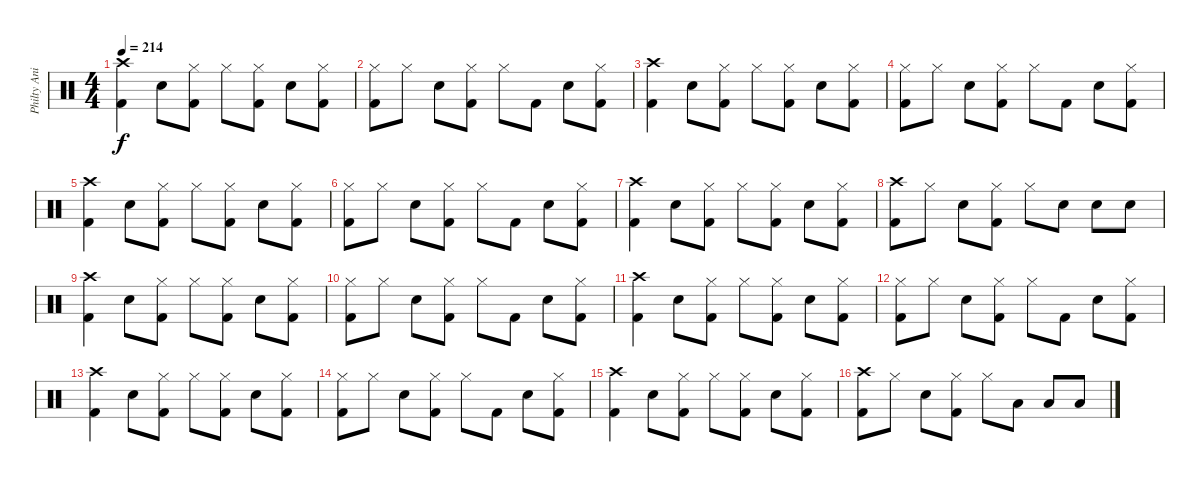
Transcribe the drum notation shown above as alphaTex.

\track ("Philty Animal" "Philty Ani") {instrument percussion}
\staff {score}
\articulation defaults
\ts (4 4)
\tempo 214
\clef neutral
\ks c
("Kick (hit) 2" "Crash high (hit)").4{dy f} "Snare (hit) 2".8 ("Kick (hit) 2" "Hi-Hat (closed)").8 "Hi-Hat (closed)".8 ("Kick (hit) 2" "Hi-Hat (closed)").8 "Snare (hit) 2".8 ("Kick (hit) 2" "Hi-Hat (closed)").8 |
("Kick (hit) 2" "Hi-Hat (closed)").8 "Hi-Hat (closed)".8 "Snare (hit) 2".8 ("Hi-Hat (closed)" "Kick (hit) 2").8 "Hi-Hat (closed)".8 "Kick (hit) 2".8 "Snare (hit) 2".8 ("Kick (hit) 2" "Hi-Hat (closed)").8 |
("Kick (hit) 2" "Crash high (hit)").4 "Snare (hit) 2".8 ("Kick (hit) 2" "Hi-Hat (closed)").8 "Hi-Hat (closed)".8 ("Kick (hit) 2" "Hi-Hat (closed)").8 "Snare (hit) 2".8 ("Kick (hit) 2" "Hi-Hat (closed)").8 |
("Kick (hit) 2" "Hi-Hat (closed)").8 "Hi-Hat (closed)".8 "Snare (hit) 2".8 ("Hi-Hat (closed)" "Kick (hit) 2").8 "Hi-Hat (closed)".8 "Kick (hit) 2".8 "Snare (hit) 2".8 ("Kick (hit) 2" "Hi-Hat (closed)").8 |
("Kick (hit) 2" "Crash high (hit)").4 "Snare (hit) 2".8 ("Kick (hit) 2" "Hi-Hat (closed)").8 "Hi-Hat (closed)".8 ("Kick (hit) 2" "Hi-Hat (closed)").8 "Snare (hit) 2".8 ("Kick (hit) 2" "Hi-Hat (closed)").8 |
("Kick (hit) 2" "Hi-Hat (closed)").8 "Hi-Hat (closed)".8 "Snare (hit) 2".8 ("Hi-Hat (closed)" "Kick (hit) 2").8 "Hi-Hat (closed)".8 "Kick (hit) 2".8 "Snare (hit) 2".8 ("Kick (hit) 2" "Hi-Hat (closed)").8 |
("Kick (hit) 2" "Crash high (hit)").4 "Snare (hit) 2".8 ("Kick (hit) 2" "Hi-Hat (closed)").8 "Hi-Hat (closed)".8 ("Kick (hit) 2" "Hi-Hat (closed)").8 "Snare (hit) 2".8 ("Kick (hit) 2" "Hi-Hat (closed)").8 |
("Crash high (hit)" "Kick (hit) 2").8 "Hi-Hat (closed)".8 "Snare (hit) 2".8 ("Hi-Hat (closed)" "Kick (hit) 2").8 "Hi-Hat (closed)".8 "Snare (hit) 2".8 "Snare (hit) 2".8 "Snare (hit) 2".8 |
("Kick (hit) 2" "Crash high (hit)").4 "Snare (hit) 2".8 ("Kick (hit) 2" "Hi-Hat (closed)").8 "Hi-Hat (closed)".8 ("Kick (hit) 2" "Hi-Hat (closed)").8 "Snare (hit) 2".8 ("Kick (hit) 2" "Hi-Hat (closed)").8 |
("Kick (hit) 2" "Hi-Hat (closed)").8 "Hi-Hat (closed)".8 "Snare (hit) 2".8 ("Hi-Hat (closed)" "Kick (hit) 2").8 "Hi-Hat (closed)".8 "Kick (hit) 2".8 "Snare (hit) 2".8 ("Kick (hit) 2" "Hi-Hat (closed)").8 |
("Kick (hit) 2" "Crash high (hit)").4 "Snare (hit) 2".8 ("Kick (hit) 2" "Hi-Hat (closed)").8 "Hi-Hat (closed)".8 ("Kick (hit) 2" "Hi-Hat (closed)").8 "Snare (hit) 2".8 ("Kick (hit) 2" "Hi-Hat (closed)").8 |
("Kick (hit) 2" "Hi-Hat (closed)").8 "Hi-Hat (closed)".8 "Snare (hit) 2".8 ("Hi-Hat (closed)" "Kick (hit) 2").8 "Hi-Hat (closed)".8 "Kick (hit) 2".8 "Snare (hit) 2".8 ("Kick (hit) 2" "Hi-Hat (closed)").8 |
("Kick (hit) 2" "Crash high (hit)").4 "Snare (hit) 2".8 ("Kick (hit) 2" "Hi-Hat (closed)").8 "Hi-Hat (closed)".8 ("Kick (hit) 2" "Hi-Hat (closed)").8 "Snare (hit) 2".8 ("Kick (hit) 2" "Hi-Hat (closed)").8 |
("Kick (hit) 2" "Hi-Hat (closed)").8 "Hi-Hat (closed)".8 "Snare (hit) 2".8 ("Hi-Hat (closed)" "Kick (hit) 2").8 "Hi-Hat (closed)".8 "Kick (hit) 2".8 "Snare (hit) 2".8 ("Kick (hit) 2" "Hi-Hat (closed)").8 |
("Kick (hit) 2" "Crash high (hit)").4 "Snare (hit) 2".8 ("Kick (hit) 2" "Hi-Hat (closed)").8 "Hi-Hat (closed)".8 ("Kick (hit) 2" "Hi-Hat (closed)").8 "Snare (hit) 2".8 ("Kick (hit) 2" "Hi-Hat (closed)").8 |
("Crash high (hit)" "Kick (hit) 2").8 "Hi-Hat (closed)".8 "Snare (hit) 2".8 ("Hi-Hat (closed)" "Kick (hit) 2").8 "Hi-Hat (closed)".8 "Low Tom (hit)".8 "Low Tom (hit)".8 "Low Tom (hit)".8
